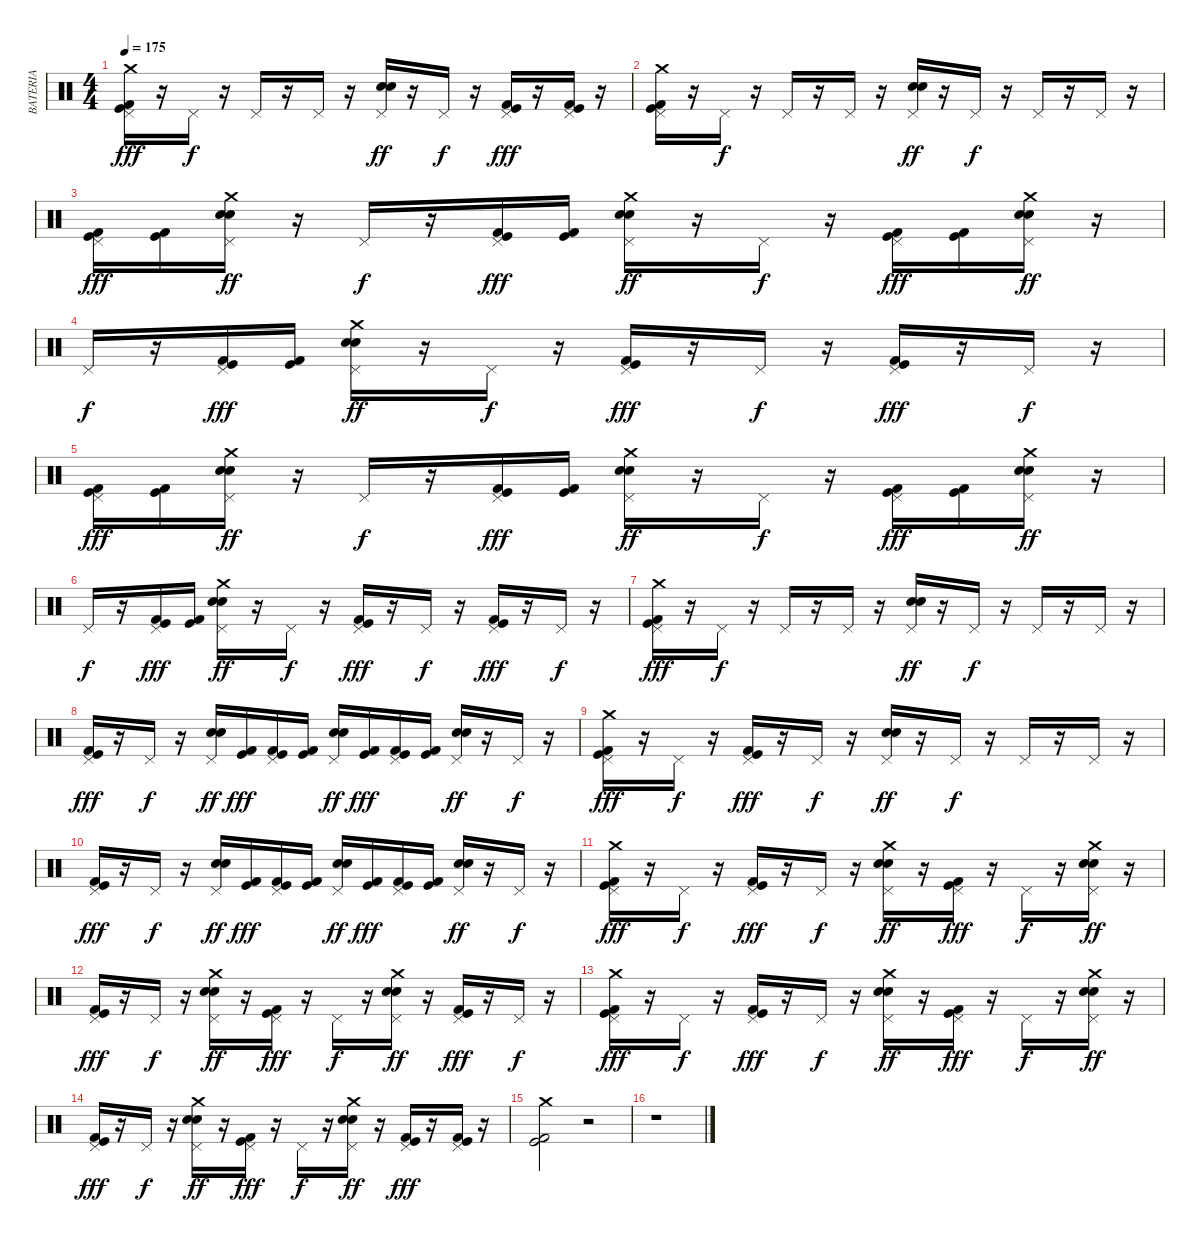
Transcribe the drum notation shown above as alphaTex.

\track ("BATERIA" "BATERIA") {instrument percussion}
\staff {score}
\articulation defaults
\ts (4 4)
\tempo 175
\clef neutral
\ks c
("Crash medium (hit)" "Kick (hit) 2" "Kick (hit)" "Pedal Hi-Hat (hit)").16{dy fff} r.16 "Pedal Hi-Hat (hit)".16{dy f} r.16 "Pedal Hi-Hat (hit)".16 r.16 "Pedal Hi-Hat (hit)".16 r.16 ("Pedal Hi-Hat (hit)" "Snare (hit) 2" "Electric Snare (hit)").16{dy ff} r.16 "Pedal Hi-Hat (hit)".16{dy f} r.16 ("Kick (hit) 2" "Kick (hit)" "Pedal Hi-Hat (hit)").16{dy fff} r.16 ("Kick (hit) 2" "Kick (hit)" "Pedal Hi-Hat (hit)").16 r.16 |
("Crash medium (hit)" "Kick (hit) 2" "Kick (hit)" "Pedal Hi-Hat (hit)").16 r.16 "Pedal Hi-Hat (hit)".16{dy f} r.16 "Pedal Hi-Hat (hit)".16 r.16 "Pedal Hi-Hat (hit)".16 r.16 ("Pedal Hi-Hat (hit)" "Snare (hit) 2" "Electric Snare (hit)").16{dy ff} r.16 "Pedal Hi-Hat (hit)".16{dy f} r.16 "Pedal Hi-Hat (hit)".16 r.16 "Pedal Hi-Hat (hit)".16 r.16 |
("Kick (hit) 2" "Kick (hit)" "Pedal Hi-Hat (hit)").16{dy fff} ("Kick (hit) 2" "Kick (hit)").16 ("Crash medium (hit)" "Electric Snare (hit)" "Snare (hit) 2" "Pedal Hi-Hat (hit)").16{dy ff} r.16 "Pedal Hi-Hat (hit)".16{dy f} r.16 ("Kick (hit) 2" "Kick (hit)" "Pedal Hi-Hat (hit)").16{dy fff} ("Kick (hit) 2" "Kick (hit)").16 ("Crash medium (hit)" "Electric Snare (hit)" "Snare (hit) 2" "Pedal Hi-Hat (hit)").16{dy ff} r.16 "Pedal Hi-Hat (hit)".16{dy f} r.16 ("Kick (hit) 2" "Kick (hit)" "Pedal Hi-Hat (hit)").16{dy fff} ("Kick (hit) 2" "Kick (hit)").16 ("Crash medium (hit)" "Electric Snare (hit)" "Snare (hit) 2" "Pedal Hi-Hat (hit)").16{dy ff} r.16 |
"Pedal Hi-Hat (hit)".16{dy f} r.16 ("Kick (hit) 2" "Kick (hit)" "Pedal Hi-Hat (hit)").16{dy fff} ("Kick (hit) 2" "Kick (hit)").16 ("Crash medium (hit)" "Electric Snare (hit)" "Snare (hit) 2" "Pedal Hi-Hat (hit)").16{dy ff} r.16 "Pedal Hi-Hat (hit)".16{dy f} r.16 ("Kick (hit) 2" "Kick (hit)" "Pedal Hi-Hat (hit)").16{dy fff} r.16 "Pedal Hi-Hat (hit)".16{dy f} r.16 ("Kick (hit) 2" "Kick (hit)" "Pedal Hi-Hat (hit)").16{dy fff} r.16 "Pedal Hi-Hat (hit)".16{dy f} r.16 |
("Kick (hit) 2" "Kick (hit)" "Pedal Hi-Hat (hit)").16{dy fff} ("Kick (hit) 2" "Kick (hit)").16 ("Crash medium (hit)" "Electric Snare (hit)" "Snare (hit) 2" "Pedal Hi-Hat (hit)").16{dy ff} r.16 "Pedal Hi-Hat (hit)".16{dy f} r.16 ("Kick (hit) 2" "Kick (hit)" "Pedal Hi-Hat (hit)").16{dy fff} ("Kick (hit) 2" "Kick (hit)").16 ("Crash medium (hit)" "Electric Snare (hit)" "Snare (hit) 2" "Pedal Hi-Hat (hit)").16{dy ff} r.16 "Pedal Hi-Hat (hit)".16{dy f} r.16 ("Kick (hit) 2" "Kick (hit)" "Pedal Hi-Hat (hit)").16{dy fff} ("Kick (hit) 2" "Kick (hit)").16 ("Crash medium (hit)" "Electric Snare (hit)" "Snare (hit) 2" "Pedal Hi-Hat (hit)").16{dy ff} r.16 |
"Pedal Hi-Hat (hit)".16{dy f} r.16 ("Kick (hit) 2" "Kick (hit)" "Pedal Hi-Hat (hit)").16{dy fff} ("Kick (hit) 2" "Kick (hit)").16 ("Crash medium (hit)" "Electric Snare (hit)" "Snare (hit) 2" "Pedal Hi-Hat (hit)").16{dy ff} r.16 "Pedal Hi-Hat (hit)".16{dy f} r.16 ("Kick (hit) 2" "Kick (hit)" "Pedal Hi-Hat (hit)").16{dy fff} r.16 "Pedal Hi-Hat (hit)".16{dy f} r.16 ("Pedal Hi-Hat (hit)" "Kick (hit)" "Kick (hit) 2").16{dy fff} r.16 "Pedal Hi-Hat (hit)".16{dy f} r.16 |
("Pedal Hi-Hat (hit)" "Kick (hit)" "Kick (hit) 2" "Crash medium (hit)").16{dy fff} r.16 "Pedal Hi-Hat (hit)".16{dy f} r.16 "Pedal Hi-Hat (hit)".16 r.16 "Pedal Hi-Hat (hit)".16 r.16 ("Electric Snare (hit)" "Snare (hit) 2" "Pedal Hi-Hat (hit)").16{dy ff} r.16 "Pedal Hi-Hat (hit)".16{dy f} r.16 "Pedal Hi-Hat (hit)".16 r.16 "Pedal Hi-Hat (hit)".16 r.16 |
("Kick (hit) 2" "Kick (hit)" "Pedal Hi-Hat (hit)").16{dy fff} r.16 "Pedal Hi-Hat (hit)".16{dy f} r.16 ("Electric Snare (hit)" "Snare (hit) 2" "Pedal Hi-Hat (hit)").16{dy ff} ("Kick (hit)" "Kick (hit) 2").16{dy fff} ("Kick (hit) 2" "Kick (hit)" "Pedal Hi-Hat (hit)").16 ("Kick (hit)" "Kick (hit) 2").16 ("Electric Snare (hit)" "Snare (hit) 2" "Pedal Hi-Hat (hit)").16{dy ff} ("Kick (hit)" "Kick (hit) 2").16{dy fff} ("Kick (hit) 2" "Kick (hit)" "Pedal Hi-Hat (hit)").16 ("Kick (hit)" "Kick (hit) 2").16 ("Electric Snare (hit)" "Snare (hit) 2" "Pedal Hi-Hat (hit)").16{dy ff} r.16 "Pedal Hi-Hat (hit)".16{dy f} r.16 |
("Pedal Hi-Hat (hit)" "Kick (hit)" "Kick (hit) 2" "Crash medium (hit)").16{dy fff} r.16 "Pedal Hi-Hat (hit)".16{dy f} r.16 ("Kick (hit) 2" "Kick (hit)" "Pedal Hi-Hat (hit)").16{dy fff} r.16 "Pedal Hi-Hat (hit)".16{dy f} r.16 ("Electric Snare (hit)" "Snare (hit) 2" "Pedal Hi-Hat (hit)").16{dy ff} r.16 "Pedal Hi-Hat (hit)".16{dy f} r.16 "Pedal Hi-Hat (hit)".16 r.16 "Pedal Hi-Hat (hit)".16 r.16 |
("Kick (hit) 2" "Kick (hit)" "Pedal Hi-Hat (hit)").16{dy fff} r.16 "Pedal Hi-Hat (hit)".16{dy f} r.16 ("Electric Snare (hit)" "Snare (hit) 2" "Pedal Hi-Hat (hit)").16{dy ff} ("Kick (hit)" "Kick (hit) 2").16{dy fff} ("Kick (hit) 2" "Kick (hit)" "Pedal Hi-Hat (hit)").16 ("Kick (hit)" "Kick (hit) 2").16 ("Electric Snare (hit)" "Snare (hit) 2" "Pedal Hi-Hat (hit)").16{dy ff} ("Kick (hit)" "Kick (hit) 2").16{dy fff} ("Kick (hit) 2" "Kick (hit)" "Pedal Hi-Hat (hit)").16 ("Kick (hit)" "Kick (hit) 2").16 ("Electric Snare (hit)" "Snare (hit) 2" "Pedal Hi-Hat (hit)").16{dy ff} r.16 "Pedal Hi-Hat (hit)".16{dy f} r.16 |
("Pedal Hi-Hat (hit)" "Kick (hit)" "Kick (hit) 2" "Crash medium (hit)").16{dy fff} r.16 "Pedal Hi-Hat (hit)".16{dy f} r.16 ("Kick (hit) 2" "Kick (hit)" "Pedal Hi-Hat (hit)").16{dy fff} r.16 "Pedal Hi-Hat (hit)".16{dy f} r.16 ("Crash medium (hit)" "Electric Snare (hit)" "Snare (hit) 2" "Pedal Hi-Hat (hit)").16{dy ff} r.16 ("Kick (hit) 2" "Kick (hit)" "Pedal Hi-Hat (hit)").16{dy fff} r.16 "Pedal Hi-Hat (hit)".16{dy f} r.16 ("Crash medium (hit)" "Electric Snare (hit)" "Snare (hit) 2" "Pedal Hi-Hat (hit)").16{dy ff} r.16 |
("Kick (hit) 2" "Kick (hit)" "Pedal Hi-Hat (hit)").16{dy fff} r.16 "Pedal Hi-Hat (hit)".16{dy f} r.16 ("Crash medium (hit)" "Electric Snare (hit)" "Snare (hit) 2" "Pedal Hi-Hat (hit)").16{dy ff} r.16 ("Kick (hit) 2" "Kick (hit)" "Pedal Hi-Hat (hit)").16{dy fff} r.16 "Pedal Hi-Hat (hit)".16{dy f} r.16 ("Crash medium (hit)" "Electric Snare (hit)" "Snare (hit) 2" "Pedal Hi-Hat (hit)").16{dy ff} r.16 ("Kick (hit) 2" "Kick (hit)" "Pedal Hi-Hat (hit)").16{dy fff} r.16 "Pedal Hi-Hat (hit)".16{dy f} r.16 |
("Pedal Hi-Hat (hit)" "Kick (hit)" "Kick (hit) 2" "Crash medium (hit)").16{dy fff} r.16 "Pedal Hi-Hat (hit)".16{dy f} r.16 ("Kick (hit) 2" "Kick (hit)" "Pedal Hi-Hat (hit)").16{dy fff} r.16 "Pedal Hi-Hat (hit)".16{dy f} r.16 ("Crash medium (hit)" "Electric Snare (hit)" "Snare (hit) 2" "Pedal Hi-Hat (hit)").16{dy ff} r.16 ("Kick (hit) 2" "Kick (hit)" "Pedal Hi-Hat (hit)").16{dy fff} r.16 "Pedal Hi-Hat (hit)".16{dy f} r.16 ("Crash medium (hit)" "Electric Snare (hit)" "Snare (hit) 2" "Pedal Hi-Hat (hit)").16{dy ff} r.16 |
("Kick (hit) 2" "Kick (hit)" "Pedal Hi-Hat (hit)").16{dy fff} r.16 "Pedal Hi-Hat (hit)".16{dy f} r.16 ("Crash medium (hit)" "Electric Snare (hit)" "Snare (hit) 2" "Pedal Hi-Hat (hit)").16{dy ff} r.16 ("Kick (hit) 2" "Kick (hit)" "Pedal Hi-Hat (hit)").16{dy fff} r.16 "Pedal Hi-Hat (hit)".16{dy f} r.16 ("Crash medium (hit)" "Electric Snare (hit)" "Snare (hit) 2" "Pedal Hi-Hat (hit)").16{dy ff} r.16 ("Kick (hit) 2" "Kick (hit)" "Pedal Hi-Hat (hit)").16{dy fff} r.16 ("Kick (hit) 2" "Kick (hit)" "Pedal Hi-Hat (hit)").16 r.16 |
("Kick (hit) 2" "Kick (hit)" "Crash medium (hit)").2 r.2 |
r.1
